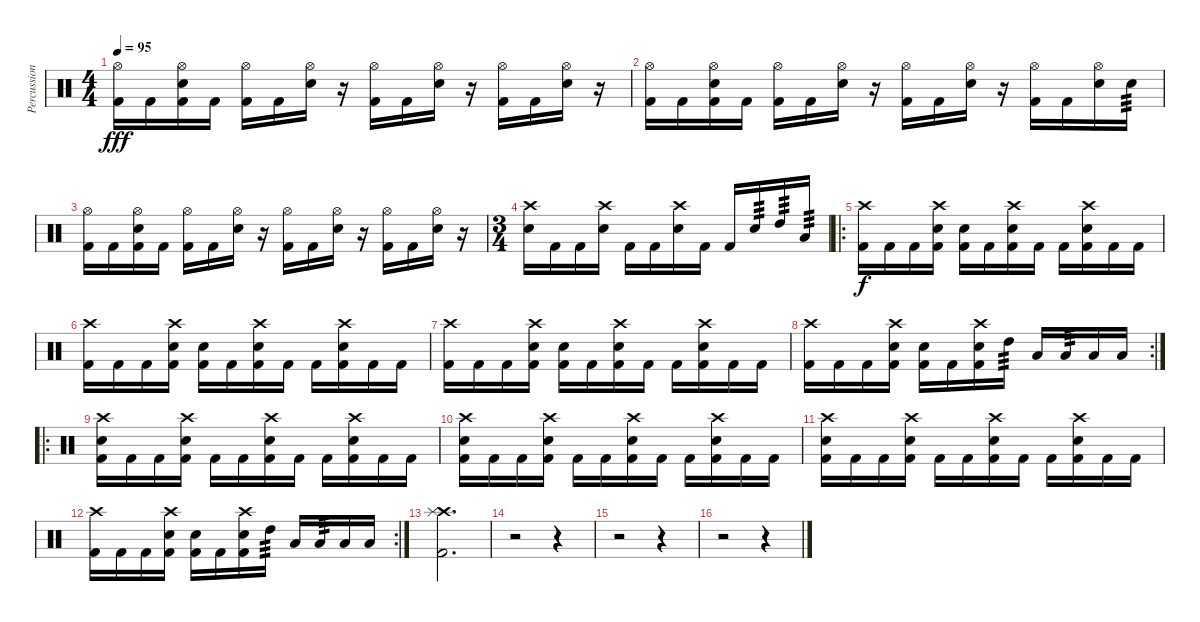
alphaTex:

\track ("Percussion" "Percussion") {instrument percussion}
\staff {score}
\articulation defaults
\ts (4 4)
\tempo 95
\clef neutral
\ks c
("Hi-Hat (open)" "Kick (hit) 2").16{dy fff} "Kick (hit) 2".16 ("Hi-Hat (open)" "Electric Snare (hit)" "Kick (hit) 2").16 "Kick (hit) 2".16 ("Hi-Hat (open)" "Kick (hit) 2").16 "Kick (hit) 2".16 ("Hi-Hat (open)" "Electric Snare (hit)").16 r.16 ("Hi-Hat (open)" "Kick (hit) 2").16 "Kick (hit) 2".16 ("Hi-Hat (open)" "Electric Snare (hit)").16 r.16 ("Hi-Hat (open)" "Kick (hit) 2").16 "Kick (hit) 2".16 ("Hi-Hat (open)" "Electric Snare (hit)").16 r.16 |
("Hi-Hat (open)" "Kick (hit) 2").16 "Kick (hit) 2".16 ("Hi-Hat (open)" "Electric Snare (hit)" "Kick (hit) 2").16 "Kick (hit) 2".16 ("Hi-Hat (open)" "Kick (hit) 2").16 "Kick (hit) 2".16 ("Hi-Hat (open)" "Electric Snare (hit)").16 r.16 ("Hi-Hat (open)" "Kick (hit) 2").16 "Kick (hit) 2".16 ("Hi-Hat (open)" "Electric Snare (hit)").16 r.16 ("Hi-Hat (open)" "Kick (hit) 2").16 "Kick (hit) 2".16 ("Hi-Hat (open)" "Electric Snare (hit)").16 "Electric Snare (hit)".16{tp 3} |
("Hi-Hat (open)" "Kick (hit) 2").16 "Kick (hit) 2".16 ("Hi-Hat (open)" "Electric Snare (hit)" "Kick (hit) 2").16 "Kick (hit) 2".16 ("Hi-Hat (open)" "Kick (hit) 2").16 "Kick (hit) 2".16 ("Hi-Hat (open)" "Electric Snare (hit)").16 r.16 ("Hi-Hat (open)" "Kick (hit) 2").16 "Kick (hit) 2".16 ("Hi-Hat (open)" "Electric Snare (hit)").16 r.16 ("Hi-Hat (open)" "Kick (hit) 2").16 "Kick (hit) 2".16 ("Hi-Hat (open)" "Electric Snare (hit)").16 r.16 |
\ts (3 4)
("Crash high (hit)" "Electric Snare (hit)").16 "Kick (hit) 2".16 "Kick (hit) 2".16 ("Crash high (hit)" "Electric Snare (hit)").16 "Kick (hit) 2".16 "Kick (hit) 2".16 ("Crash high (hit)" "Electric Snare (hit)").16 "Kick (hit) 2".16 "Kick (hit) 2".16 "Electric Snare (hit)".16{tp 3} "High Tom (hit)".16{tp 3} "Low Tom (hit)".16{tp 3} |
\ro
("Crash high (hit)" "Kick (hit) 2").16{dy f} "Kick (hit) 2".16 "Kick (hit) 2".16 ("Crash high (hit)" "Electric Snare (hit)" "Kick (hit) 2").16 ("Electric Snare (hit)" "Kick (hit) 2").16 "Kick (hit) 2".16 ("Crash high (hit)" "Electric Snare (hit)" "Kick (hit) 2").16 "Kick (hit) 2".16 "Kick (hit) 2".16 ("Crash high (hit)" "Electric Snare (hit)" "Kick (hit) 2").16 "Kick (hit) 2".16 "Kick (hit) 2".16 |
("Crash high (hit)" "Kick (hit) 2").16 "Kick (hit) 2".16 "Kick (hit) 2".16 ("Crash high (hit)" "Electric Snare (hit)" "Kick (hit) 2").16 ("Electric Snare (hit)" "Kick (hit) 2").16 "Kick (hit) 2".16 ("Crash high (hit)" "Electric Snare (hit)" "Kick (hit) 2").16 "Kick (hit) 2".16 "Kick (hit) 2".16 ("Crash high (hit)" "Electric Snare (hit)" "Kick (hit) 2").16 "Kick (hit) 2".16 "Kick (hit) 2".16 |
("Crash high (hit)" "Kick (hit) 2").16 "Kick (hit) 2".16 "Kick (hit) 2".16 ("Crash high (hit)" "Electric Snare (hit)" "Kick (hit) 2").16 ("Electric Snare (hit)" "Kick (hit) 2").16 "Kick (hit) 2".16 ("Crash high (hit)" "Electric Snare (hit)" "Kick (hit) 2").16 "Kick (hit) 2".16 "Kick (hit) 2".16 ("Crash high (hit)" "Electric Snare (hit)" "Kick (hit) 2").16 "Kick (hit) 2".16 "Kick (hit) 2".16 |
\rc 2
("Crash high (hit)" "Kick (hit) 2").16 "Kick (hit) 2".16 "Kick (hit) 2".16 ("Crash high (hit)" "Electric Snare (hit)" "Kick (hit) 2").16 ("Electric Snare (hit)" "Kick (hit) 2").16 "Kick (hit) 2".16 ("Crash high (hit)" "Electric Snare (hit)" "Kick (hit) 2").16 "High Tom (hit)".16{tp 3} "Low Tom (hit)".16 "Low Floor Tom (hit)".16{tp 3} "Low Tom (hit)".16 "Low Floor Tom (hit)".16 |
\ro
("Crash high (hit)" "Electric Snare (hit)" "Kick (hit) 2").16 "Kick (hit) 2".16 "Kick (hit) 2".16 ("Crash high (hit)" "Electric Snare (hit)" "Kick (hit) 2").16 "Kick (hit) 2".16 "Kick (hit) 2".16 ("Crash high (hit)" "Electric Snare (hit)" "Kick (hit) 2").16 "Kick (hit) 2".16 "Kick (hit) 2".16 ("Crash high (hit)" "Electric Snare (hit)" "Kick (hit) 2").16 "Kick (hit) 2".16 "Kick (hit) 2".16 |
("Crash high (hit)" "Electric Snare (hit)" "Kick (hit) 2").16 "Kick (hit) 2".16 "Kick (hit) 2".16 ("Crash high (hit)" "Electric Snare (hit)" "Kick (hit) 2").16 "Kick (hit) 2".16 "Kick (hit) 2".16 ("Crash high (hit)" "Electric Snare (hit)" "Kick (hit) 2").16 "Kick (hit) 2".16 "Kick (hit) 2".16 ("Crash high (hit)" "Electric Snare (hit)" "Kick (hit) 2").16 "Kick (hit) 2".16 "Kick (hit) 2".16 |
("Crash high (hit)" "Electric Snare (hit)" "Kick (hit) 2").16 "Kick (hit) 2".16 "Kick (hit) 2".16 ("Crash high (hit)" "Electric Snare (hit)" "Kick (hit) 2").16 "Kick (hit) 2".16 "Kick (hit) 2".16 ("Crash high (hit)" "Electric Snare (hit)" "Kick (hit) 2").16 "Kick (hit) 2".16 "Kick (hit) 2".16 ("Crash high (hit)" "Electric Snare (hit)" "Kick (hit) 2").16 "Kick (hit) 2".16 "Kick (hit) 2".16 |
\rc 2
("Crash high (hit)" "Kick (hit) 2").16 "Kick (hit) 2".16 "Kick (hit) 2".16 ("Crash high (hit)" "Electric Snare (hit)" "Kick (hit) 2").16 ("Electric Snare (hit)" "Kick (hit) 2").16 "Kick (hit) 2".16 ("Crash high (hit)" "Electric Snare (hit)" "Kick (hit) 2").16 "High Tom (hit)".16{tp 3} "Low Tom (hit)".16 "Low Floor Tom (hit)".16{tp 3} "Low Tom (hit)".16 "Low Floor Tom (hit)".16 |
("Crash high (hit)" "Splash (hit)" "Kick (hit) 2").2{d} |
r.2 r.4 |
r.2 r.4 |
r.2 r.4
